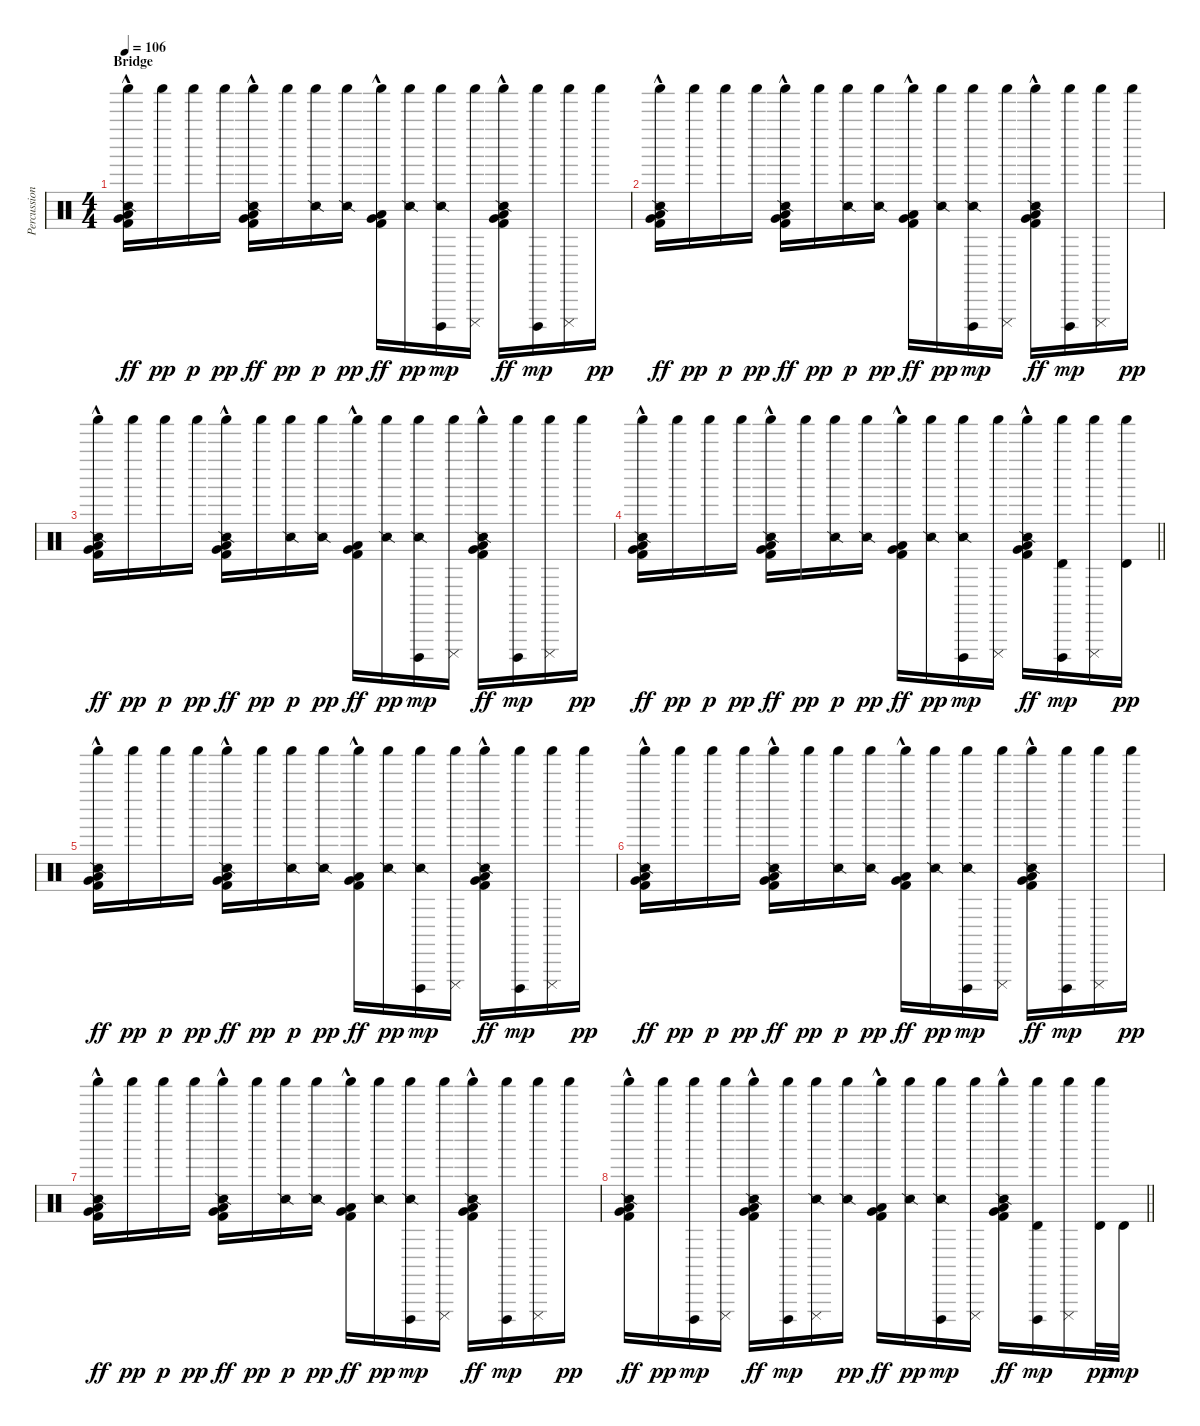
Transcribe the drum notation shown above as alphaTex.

\track ("Percussion" "Percussion") {instrument percussion}
\staff {score}
\articulation defaults
\ts (4 4)
\section ("" "Bridge")
\tempo 106
\clef neutral
\ks c
("Low Floor Tom (hit)" "Very Low Tom (hit)" "Snare (side stick) 2" "Shaker (hit)" "Kick (hit) 2"{hac}).16{dy ff} "Shaker (hit)".16{dy pp} "Shaker (hit)".16{dy p} "Shaker (hit)".16{dy pp} ("Low Floor Tom (hit)" "Very Low Tom (hit)" "Snare (side stick) 2" "Shaker (hit)" "Kick (hit) 2"{hac}).16{dy ff} "Shaker (hit)".16{dy pp} ("Snare (side stick) 2" "Shaker (hit)").16{dy p} ("Snare (side stick) 2" "Shaker (hit)").16{dy pp} ("Low Floor Tom (hit)" "Very Low Tom (hit)" "Shaker (hit)" "Kick (hit) 2"{hac}).16{dy ff} ("Snare (side stick) 2" "Shaker (hit)").16{dy pp} ("Snare (side stick) 2" "Shaker (hit)" "Cuica (open)").16{dy mp} ("Shaker (hit)" "Cuica (mute)").16 ("Low Floor Tom (hit)" "Very Low Tom (hit)" "Snare (side stick) 2" "Shaker (hit)" "Kick (hit) 2"{hac}).16{dy ff} ("Shaker (hit)" "Cuica (open)").16{dy mp} ("Shaker (hit)" "Cuica (mute)").16 "Shaker (hit)".16{dy pp} |
("Low Floor Tom (hit)" "Very Low Tom (hit)" "Snare (side stick) 2" "Shaker (hit)" "Kick (hit) 2"{hac}).16{dy ff} "Shaker (hit)".16{dy pp} "Shaker (hit)".16{dy p} "Shaker (hit)".16{dy pp} ("Low Floor Tom (hit)" "Very Low Tom (hit)" "Snare (side stick) 2" "Shaker (hit)" "Kick (hit) 2"{hac}).16{dy ff} "Shaker (hit)".16{dy pp} ("Snare (side stick) 2" "Shaker (hit)").16{dy p} ("Snare (side stick) 2" "Shaker (hit)").16{dy pp} ("Low Floor Tom (hit)" "Very Low Tom (hit)" "Shaker (hit)" "Kick (hit) 2"{hac}).16{dy ff} ("Snare (side stick) 2" "Shaker (hit)").16{dy pp} ("Snare (side stick) 2" "Shaker (hit)" "Cuica (open)").16{dy mp} ("Shaker (hit)" "Cuica (mute)").16 ("Low Floor Tom (hit)" "Very Low Tom (hit)" "Snare (side stick) 2" "Shaker (hit)" "Kick (hit) 2"{hac}).16{dy ff} ("Shaker (hit)" "Cuica (open)").16{dy mp} ("Shaker (hit)" "Cuica (mute)").16 "Shaker (hit)".16{dy pp} |
("Low Floor Tom (hit)" "Very Low Tom (hit)" "Snare (side stick) 2" "Shaker (hit)" "Kick (hit) 2"{hac}).16{dy ff} "Shaker (hit)".16{dy pp} "Shaker (hit)".16{dy p} "Shaker (hit)".16{dy pp} ("Low Floor Tom (hit)" "Very Low Tom (hit)" "Snare (side stick) 2" "Shaker (hit)" "Kick (hit) 2"{hac}).16{dy ff} "Shaker (hit)".16{dy pp} ("Snare (side stick) 2" "Shaker (hit)").16{dy p} ("Snare (side stick) 2" "Shaker (hit)").16{dy pp} ("Low Floor Tom (hit)" "Very Low Tom (hit)" "Shaker (hit)" "Kick (hit) 2"{hac}).16{dy ff} ("Snare (side stick) 2" "Shaker (hit)").16{dy pp} ("Snare (side stick) 2" "Shaker (hit)" "Cuica (open)").16{dy mp} ("Shaker (hit)" "Cuica (mute)").16 ("Low Floor Tom (hit)" "Very Low Tom (hit)" "Snare (side stick) 2" "Shaker (hit)" "Kick (hit) 2"{hac}).16{dy ff} ("Shaker (hit)" "Cuica (open)").16{dy mp} ("Shaker (hit)" "Cuica (mute)").16 "Shaker (hit)".16{dy pp} |
\barLineRight lightlight
("Low Floor Tom (hit)" "Very Low Tom (hit)" "Snare (side stick) 2" "Shaker (hit)" "Kick (hit) 2"{hac}).16{dy ff} "Shaker (hit)".16{dy pp} "Shaker (hit)".16{dy p} "Shaker (hit)".16{dy pp} ("Low Floor Tom (hit)" "Very Low Tom (hit)" "Snare (side stick) 2" "Shaker (hit)" "Kick (hit) 2"{hac}).16{dy ff} "Shaker (hit)".16{dy pp} ("Snare (side stick) 2" "Shaker (hit)").16{dy p} ("Snare (side stick) 2" "Shaker (hit)").16{dy pp} ("Low Floor Tom (hit)" "Very Low Tom (hit)" "Shaker (hit)" "Kick (hit) 2"{hac}).16{dy ff} ("Snare (side stick) 2" "Shaker (hit)").16{dy pp} ("Snare (side stick) 2" "Shaker (hit)" "Cuica (open)").16{dy mp} ("Shaker (hit)" "Cuica (mute)").16 ("Low Floor Tom (hit)" "Very Low Tom (hit)" "Snare (side stick) 2" "Shaker (hit)" "Kick (hit) 2"{hac}).16{dy ff} ("Timbale high (hit)" "Shaker (hit)" "Cuica (open)").16{dy mp} ("Shaker (hit)" "Cuica (mute)").16 ("Timbale high (hit)" "Shaker (hit)").16{dy pp} |
("Low Floor Tom (hit)" "Very Low Tom (hit)" "Snare (side stick) 2" "Shaker (hit)" "Kick (hit) 2"{hac}).16{dy ff} "Shaker (hit)".16{dy pp} "Shaker (hit)".16{dy p} "Shaker (hit)".16{dy pp} ("Low Floor Tom (hit)" "Very Low Tom (hit)" "Snare (side stick) 2" "Shaker (hit)" "Kick (hit) 2"{hac}).16{dy ff} "Shaker (hit)".16{dy pp} ("Snare (side stick) 2" "Shaker (hit)").16{dy p} ("Snare (side stick) 2" "Shaker (hit)").16{dy pp} ("Low Floor Tom (hit)" "Very Low Tom (hit)" "Shaker (hit)" "Kick (hit) 2"{hac}).16{dy ff} ("Snare (side stick) 2" "Shaker (hit)").16{dy pp} ("Snare (side stick) 2" "Shaker (hit)" "Cuica (open)").16{dy mp} ("Shaker (hit)" "Cuica (mute)").16 ("Low Floor Tom (hit)" "Very Low Tom (hit)" "Snare (side stick) 2" "Shaker (hit)" "Kick (hit) 2"{hac}).16{dy ff} ("Shaker (hit)" "Cuica (open)").16{dy mp} ("Shaker (hit)" "Cuica (mute)").16 "Shaker (hit)".16{dy pp} |
("Low Floor Tom (hit)" "Very Low Tom (hit)" "Snare (side stick) 2" "Shaker (hit)" "Kick (hit) 2"{hac}).16{dy ff} "Shaker (hit)".16{dy pp} "Shaker (hit)".16{dy p} "Shaker (hit)".16{dy pp} ("Low Floor Tom (hit)" "Very Low Tom (hit)" "Snare (side stick) 2" "Shaker (hit)" "Kick (hit) 2"{hac}).16{dy ff} "Shaker (hit)".16{dy pp} ("Snare (side stick) 2" "Shaker (hit)").16{dy p} ("Snare (side stick) 2" "Shaker (hit)").16{dy pp} ("Low Floor Tom (hit)" "Very Low Tom (hit)" "Shaker (hit)" "Kick (hit) 2"{hac}).16{dy ff} ("Snare (side stick) 2" "Shaker (hit)").16{dy pp} ("Snare (side stick) 2" "Shaker (hit)" "Cuica (open)").16{dy mp} ("Shaker (hit)" "Cuica (mute)").16 ("Low Floor Tom (hit)" "Very Low Tom (hit)" "Snare (side stick) 2" "Shaker (hit)" "Kick (hit) 2"{hac}).16{dy ff} ("Shaker (hit)" "Cuica (open)").16{dy mp} ("Shaker (hit)" "Cuica (mute)").16 "Shaker (hit)".16{dy pp} |
("Low Floor Tom (hit)" "Very Low Tom (hit)" "Snare (side stick) 2" "Shaker (hit)" "Kick (hit) 2"{hac}).16{dy ff} "Shaker (hit)".16{dy pp} "Shaker (hit)".16{dy p} "Shaker (hit)".16{dy pp} ("Low Floor Tom (hit)" "Very Low Tom (hit)" "Snare (side stick) 2" "Shaker (hit)" "Kick (hit) 2"{hac}).16{dy ff} "Shaker (hit)".16{dy pp} ("Snare (side stick) 2" "Shaker (hit)").16{dy p} ("Snare (side stick) 2" "Shaker (hit)").16{dy pp} ("Low Floor Tom (hit)" "Very Low Tom (hit)" "Shaker (hit)" "Kick (hit) 2"{hac}).16{dy ff} ("Snare (side stick) 2" "Shaker (hit)").16{dy pp} ("Snare (side stick) 2" "Shaker (hit)" "Cuica (open)").16{dy mp} ("Shaker (hit)" "Cuica (mute)").16 ("Low Floor Tom (hit)" "Very Low Tom (hit)" "Snare (side stick) 2" "Shaker (hit)" "Kick (hit) 2"{hac}).16{dy ff} ("Shaker (hit)" "Cuica (open)").16{dy mp} ("Shaker (hit)" "Cuica (mute)").16 "Shaker (hit)".16{dy pp} |
\barLineRight lightlight
("Low Floor Tom (hit)" "Very Low Tom (hit)" "Snare (side stick) 2" "Shaker (hit)" "Kick (hit) 2"{hac}).16{dy ff} "Shaker (hit)".16{dy pp} ("Shaker (hit)" "Cuica (open)").16{dy mp} ("Shaker (hit)" "Cuica (mute)").16 ("Low Floor Tom (hit)" "Very Low Tom (hit)" "Snare (side stick) 2" "Shaker (hit)" "Kick (hit) 2"{hac}).16{dy ff} ("Shaker (hit)" "Cuica (open)").16{dy mp} ("Snare (side stick) 2" "Shaker (hit)" "Cuica (mute)").16 ("Snare (side stick) 2" "Shaker (hit)").16{dy pp} ("Low Floor Tom (hit)" "Very Low Tom (hit)" "Shaker (hit)" "Kick (hit) 2"{hac}).16{dy ff} ("Snare (side stick) 2" "Shaker (hit)").16{dy pp} ("Snare (side stick) 2" "Shaker (hit)" "Cuica (open)").16{dy mp} ("Shaker (hit)" "Cuica (mute)").16 ("Low Floor Tom (hit)" "Very Low Tom (hit)" "Snare (side stick) 2" "Shaker (hit)" "Kick (hit) 2"{hac}).16{dy ff} ("Timbale high (hit)" "Shaker (hit)" "Cuica (open)").16{dy mp} ("Shaker (hit)" "Cuica (mute)").16 ("Timbale high (hit)" "Shaker (hit)").32{dy pp} "Timbale high (hit)".32{dy mp}
